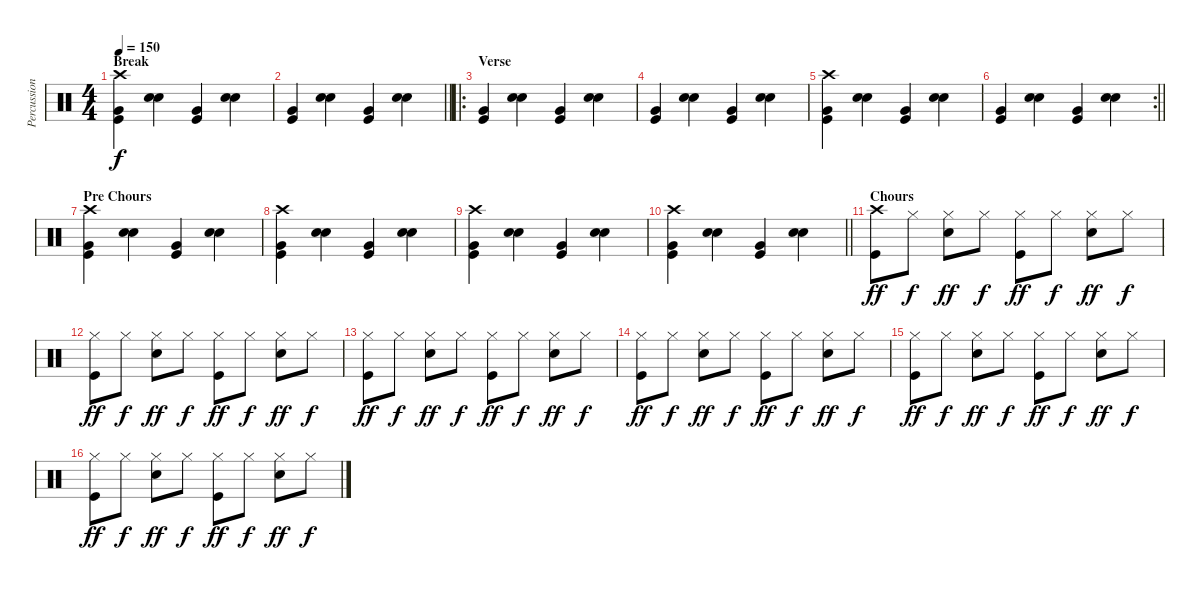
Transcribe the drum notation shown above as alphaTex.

\track ("Percussion" "Percussion") {instrument percussion}
\staff {score}
\articulation defaults
\ts (4 4)
\section ("" "Break")
\tempo 150
\clef neutral
\ks c
("Kick (hit)" "Very Low Tom (hit)" "Crash high (hit)").4{dy f} ("Snare (hit) 2" "Snare (hit) 2").4 ("Kick (hit)" "Very Low Tom (hit)").4 ("Snare (hit) 2" "Snare (hit) 2").4 |
\barLineRight lightlight
("Kick (hit)" "Very Low Tom (hit)").4 ("Snare (hit) 2" "Snare (hit) 2").4 ("Kick (hit)" "Very Low Tom (hit)").4 ("Snare (hit) 2" "Snare (hit) 2").4 |
\ro
\section ("" "Verse")
("Kick (hit)" "Very Low Tom (hit)").4 ("Snare (hit) 2" "Snare (hit) 2").4 ("Kick (hit)" "Very Low Tom (hit)").4 ("Snare (hit) 2" "Snare (hit) 2").4 |
("Kick (hit)" "Very Low Tom (hit)").4 ("Snare (hit) 2" "Snare (hit) 2").4 ("Kick (hit)" "Very Low Tom (hit)").4 ("Snare (hit) 2" "Snare (hit) 2").4 |
("Kick (hit)" "Very Low Tom (hit)" "Crash high (hit)").4 ("Snare (hit) 2" "Snare (hit) 2").4 ("Kick (hit)" "Very Low Tom (hit)").4 ("Snare (hit) 2" "Snare (hit) 2").4 |
\rc 2
\barLineRight lightlight
("Kick (hit)" "Very Low Tom (hit)").4 ("Snare (hit) 2" "Snare (hit) 2").4 ("Kick (hit)" "Very Low Tom (hit)").4 ("Snare (hit) 2" "Snare (hit) 2").4 |
\section ("" "Pre Chours")
("Kick (hit)" "Very Low Tom (hit)" "Crash high (hit)").4 ("Snare (hit) 2" "Snare (hit) 2").4 ("Kick (hit)" "Very Low Tom (hit)").4 ("Snare (hit) 2" "Snare (hit) 2").4 |
("Kick (hit)" "Very Low Tom (hit)" "Crash high (hit)").4 ("Snare (hit) 2" "Snare (hit) 2").4 ("Kick (hit)" "Very Low Tom (hit)").4 ("Snare (hit) 2" "Snare (hit) 2").4 |
("Kick (hit)" "Very Low Tom (hit)" "Crash high (hit)").4 ("Snare (hit) 2" "Snare (hit) 2").4 ("Kick (hit)" "Very Low Tom (hit)").4 ("Snare (hit) 2" "Snare (hit) 2").4 |
\barLineRight lightlight
("Kick (hit)" "Very Low Tom (hit)" "Crash high (hit)").4 ("Snare (hit) 2" "Snare (hit) 2").4 ("Kick (hit)" "Very Low Tom (hit)").4 ("Snare (hit) 2" "Snare (hit) 2").4 |
\section ("" "Chours")
("Crash high (hit)" "Kick (hit)").8{dy ff} "Hi-Hat (closed)".8{dy f} ("Hi-Hat (closed)" "Snare (hit) 2").8{dy ff} "Hi-Hat (closed)".8{dy f} ("Hi-Hat (closed)" "Kick (hit)").8{dy ff} "Hi-Hat (closed)".8{dy f} ("Hi-Hat (closed)" "Snare (hit) 2").8{dy ff} "Hi-Hat (closed)".8{dy f} |
("Hi-Hat (closed)" "Kick (hit)").8{dy ff} "Hi-Hat (closed)".8{dy f} ("Hi-Hat (closed)" "Snare (hit) 2").8{dy ff} "Hi-Hat (closed)".8{dy f} ("Hi-Hat (closed)" "Kick (hit)").8{dy ff} "Hi-Hat (closed)".8{dy f} ("Hi-Hat (closed)" "Snare (hit) 2").8{dy ff} "Hi-Hat (closed)".8{dy f} |
("Hi-Hat (closed)" "Kick (hit)").8{dy ff} "Hi-Hat (closed)".8{dy f} ("Hi-Hat (closed)" "Snare (hit) 2").8{dy ff} "Hi-Hat (closed)".8{dy f} ("Hi-Hat (closed)" "Kick (hit)").8{dy ff} "Hi-Hat (closed)".8{dy f} ("Hi-Hat (closed)" "Snare (hit) 2").8{dy ff} "Hi-Hat (closed)".8{dy f} |
("Hi-Hat (closed)" "Kick (hit)").8{dy ff} "Hi-Hat (closed)".8{dy f} ("Hi-Hat (closed)" "Snare (hit) 2").8{dy ff} "Hi-Hat (closed)".8{dy f} ("Hi-Hat (closed)" "Kick (hit)").8{dy ff} "Hi-Hat (closed)".8{dy f} ("Hi-Hat (closed)" "Snare (hit) 2").8{dy ff} "Hi-Hat (closed)".8{dy f} |
("Hi-Hat (closed)" "Kick (hit)").8{dy ff} "Hi-Hat (closed)".8{dy f} ("Hi-Hat (closed)" "Snare (hit) 2").8{dy ff} "Hi-Hat (closed)".8{dy f} ("Hi-Hat (closed)" "Kick (hit)").8{dy ff} "Hi-Hat (closed)".8{dy f} ("Hi-Hat (closed)" "Snare (hit) 2").8{dy ff} "Hi-Hat (closed)".8{dy f} |
("Hi-Hat (closed)" "Kick (hit)").8{dy ff} "Hi-Hat (closed)".8{dy f} ("Hi-Hat (closed)" "Snare (hit) 2").8{dy ff} "Hi-Hat (closed)".8{dy f} ("Hi-Hat (closed)" "Kick (hit)").8{dy ff} "Hi-Hat (closed)".8{dy f} ("Hi-Hat (closed)" "Snare (hit) 2").8{dy ff} "Hi-Hat (closed)".8{dy f}
